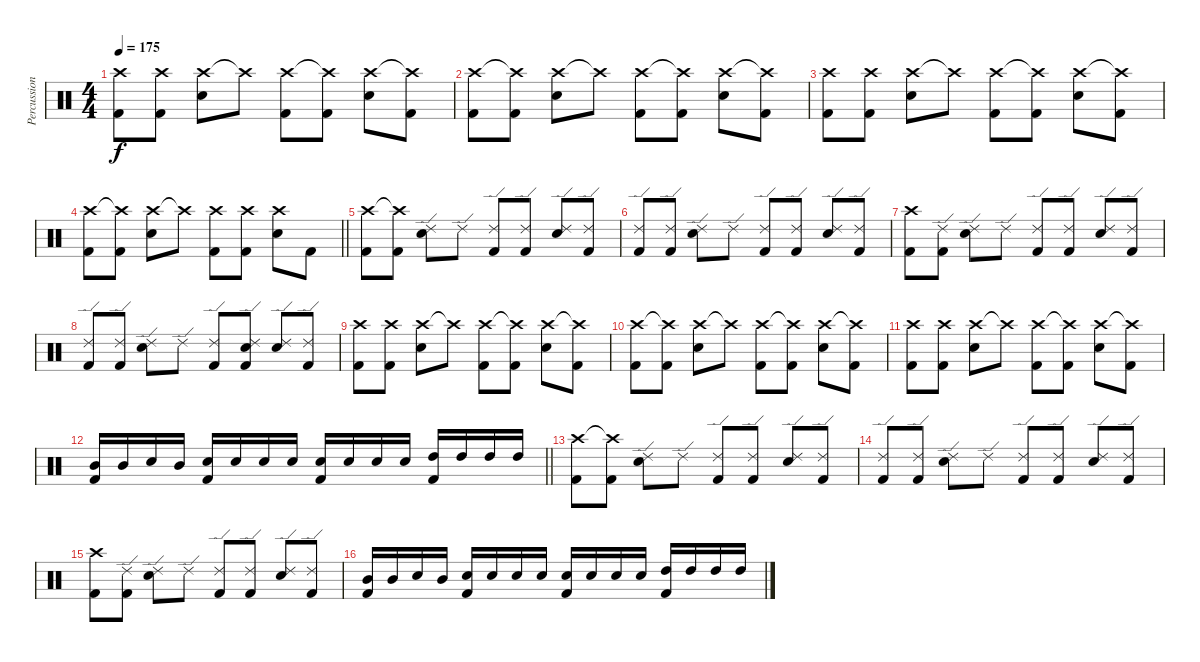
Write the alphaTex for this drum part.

\track ("Percussion" "Percussion") {instrument percussion}
\staff {score}
\articulation defaults
\ts (4 4)
\tempo 175
\clef neutral
\ks c
("Crash high (hit)" "Kick (hit) 2").8{dy f} ("Crash high (hit)" "Kick (hit) 2").8 ("Crash high (hit)" "Snare (hit) 2").8 "Crash high (hit)"{t}.8 ("Crash high (hit)" "Kick (hit) 2").8 ("Crash high (hit)"{t} "Kick (hit) 2").8 ("Crash high (hit)" "Snare (hit) 2").8 ("Crash high (hit)"{t} "Kick (hit) 2").8 |
("Crash high (hit)" "Kick (hit) 2").8 ("Crash high (hit)"{t} "Kick (hit) 2").8 ("Crash high (hit)" "Snare (hit) 2").8 "Crash high (hit)"{t}.8 ("Crash high (hit)" "Kick (hit) 2").8 ("Crash high (hit)"{t} "Kick (hit) 2").8 ("Crash high (hit)" "Snare (hit) 2").8 ("Crash high (hit)"{t} "Kick (hit) 2").8 |
("Crash high (hit)" "Kick (hit) 2").8 ("Crash high (hit)" "Kick (hit) 2").8 ("Crash high (hit)" "Snare (hit) 2").8 "Crash high (hit)"{t}.8 ("Crash high (hit)" "Kick (hit) 2").8 ("Crash high (hit)"{t} "Kick (hit) 2").8 ("Crash high (hit)" "Snare (hit) 2").8 ("Crash high (hit)"{t} "Kick (hit) 2").8 |
\barLineRight lightlight
("Crash high (hit)" "Kick (hit) 2").8 ("Crash high (hit)"{t} "Kick (hit) 2").8 ("Crash high (hit)" "Snare (hit) 2").8 "Crash high (hit)"{t}.8 ("Crash high (hit)" "Kick (hit) 2").8 ("Crash high (hit)" "Kick (hit) 2").8 ("Crash high (hit)" "Snare (hit) 2").8 "Kick (hit) 2".8 |
("Crash high (hit)" "Kick (hit) 2").8 ("Crash high (hit)"{t} "Kick (hit) 2").8 ("Ride (edge) 2" "Snare (hit) 2").8 "Ride (edge) 2".8 ("Ride (edge) 2" "Kick (hit) 2").8 ("Ride (edge) 2" "Kick (hit) 2").8 ("Ride (edge) 2" "Snare (hit) 2").8 ("Ride (edge) 2" "Kick (hit) 2").8 |
("Ride (edge) 2" "Kick (hit) 2").8 ("Ride (edge) 2" "Kick (hit) 2").8 ("Ride (edge) 2" "Snare (hit) 2").8 "Ride (edge) 2".8 ("Ride (edge) 2" "Kick (hit) 2").8 ("Ride (edge) 2" "Kick (hit) 2").8 ("Ride (edge) 2" "Snare (hit) 2").8 ("Ride (edge) 2" "Kick (hit) 2").8 |
("Crash high (hit)" "Kick (hit) 2").8 ("Ride (edge) 2" "Kick (hit) 2").8 ("Ride (edge) 2" "Snare (hit) 2").8 "Ride (edge) 2".8 ("Ride (edge) 2" "Kick (hit) 2").8 ("Ride (edge) 2" "Kick (hit) 2").8 ("Ride (edge) 2" "Snare (hit) 2").8 ("Ride (edge) 2" "Kick (hit) 2").8 |
("Ride (edge) 2" "Kick (hit) 2").8 ("Ride (edge) 2" "Kick (hit) 2").8 ("Ride (edge) 2" "Snare (hit) 2").8 "Ride (edge) 2".8 ("Ride (edge) 2" "Kick (hit) 2").8 ("Ride (edge) 2" "Snare (hit) 2" "Kick (hit) 2").8 ("Ride (edge) 2" "Snare (hit) 2").8 ("Ride (edge) 2" "Kick (hit) 2").8 |
("Crash high (hit)" "Kick (hit) 2").8 ("Crash high (hit)" "Kick (hit) 2").8 ("Crash high (hit)" "Snare (hit) 2").8 "Crash high (hit)"{t}.8 ("Crash high (hit)" "Kick (hit) 2").8 ("Crash high (hit)"{t} "Kick (hit) 2").8 ("Crash high (hit)" "Snare (hit) 2").8 ("Crash high (hit)"{t} "Kick (hit) 2").8 |
("Crash high (hit)" "Kick (hit) 2").8 ("Crash high (hit)"{t} "Kick (hit) 2").8 ("Crash high (hit)" "Snare (hit) 2").8 "Crash high (hit)"{t}.8 ("Crash high (hit)" "Kick (hit) 2").8 ("Crash high (hit)"{t} "Kick (hit) 2").8 ("Crash high (hit)" "Snare (hit) 2").8 ("Crash high (hit)"{t} "Kick (hit) 2").8 |
("Crash high (hit)" "Kick (hit) 2").8 ("Crash high (hit)" "Kick (hit) 2").8 ("Crash high (hit)" "Snare (hit) 2").8 "Crash high (hit)"{t}.8 ("Crash high (hit)" "Kick (hit) 2").8 ("Crash high (hit)"{t} "Kick (hit) 2").8 ("Crash high (hit)" "Snare (hit) 2").8 ("Crash high (hit)"{t} "Kick (hit) 2").8 |
\barLineRight lightlight
("Mid Tom (hit)" "Kick (hit) 2").16 "Mid Tom (hit)".16 "Snare (hit) 2".16 "Mid Tom (hit)".16 ("Snare (hit) 2" "Kick (hit) 2").16 "Snare (hit) 2".16 "Snare (hit) 2".16 "Snare (hit) 2".16 ("Snare (hit) 2" "Kick (hit) 2").16 "Snare (hit) 2".16 "Snare (hit) 2".16 "Snare (hit) 2".16 ("High Tom (hit)" "Kick (hit) 2").16 "High Tom (hit)".16 "High Tom (hit)".16 "High Tom (hit)".16 |
("Crash high (hit)" "Kick (hit) 2").8 ("Crash high (hit)"{t} "Kick (hit) 2").8 ("Ride (edge) 2" "Snare (hit) 2").8 "Ride (edge) 2".8 ("Ride (edge) 2" "Kick (hit) 2").8 ("Ride (edge) 2" "Kick (hit) 2").8 ("Ride (edge) 2" "Snare (hit) 2").8 ("Ride (edge) 2" "Kick (hit) 2").8 |
("Ride (edge) 2" "Kick (hit) 2").8 ("Ride (edge) 2" "Kick (hit) 2").8 ("Ride (edge) 2" "Snare (hit) 2").8 "Ride (edge) 2".8 ("Ride (edge) 2" "Kick (hit) 2").8 ("Ride (edge) 2" "Kick (hit) 2").8 ("Ride (edge) 2" "Snare (hit) 2").8 ("Ride (edge) 2" "Kick (hit) 2").8 |
("Crash high (hit)" "Kick (hit) 2").8 ("Ride (edge) 2" "Kick (hit) 2").8 ("Ride (edge) 2" "Snare (hit) 2").8 "Ride (edge) 2".8 ("Ride (edge) 2" "Kick (hit) 2").8 ("Ride (edge) 2" "Kick (hit) 2").8 ("Ride (edge) 2" "Snare (hit) 2").8 ("Ride (edge) 2" "Kick (hit) 2").8 |
("Mid Tom (hit)" "Kick (hit) 2").16 "Mid Tom (hit)".16 "Snare (hit) 2".16 "Mid Tom (hit)".16 ("Snare (hit) 2" "Kick (hit) 2").16 "Snare (hit) 2".16 "Snare (hit) 2".16 "Snare (hit) 2".16 ("Snare (hit) 2" "Kick (hit) 2").16 "Snare (hit) 2".16 "Snare (hit) 2".16 "Snare (hit) 2".16 ("High Tom (hit)" "Kick (hit) 2").16 "High Tom (hit)".16 "High Tom (hit)".16 "High Tom (hit)".16
